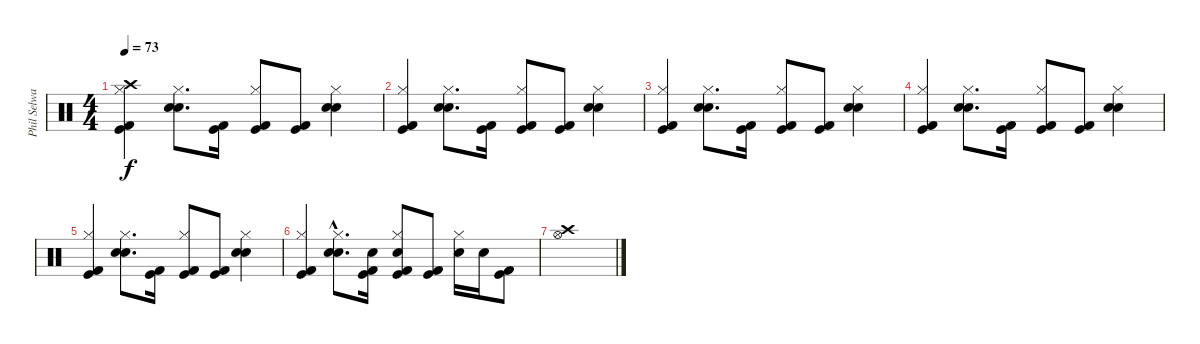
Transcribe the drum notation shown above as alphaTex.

\track ("Phil Selway - Drums" "Phil Selwa") {instrument percussion}
\staff {score}
\articulation defaults
\ts (4 4)
\tempo 73
\clef neutral
\ks c
("Kick (hit) 2" "Hi-Hat (closed)" "Kick (hit)" "Crash high (hit)").4{dy f} ("Electric Snare (hit)" "Hi-Hat (closed)" "Snare (hit) 2").8{d} ("Kick (hit)" "Kick (hit) 2").16 ("Kick (hit)" "Kick (hit) 2" "Hi-Hat (closed)").8 ("Kick (hit)" "Kick (hit) 2").8 ("Snare (hit) 2" "Electric Snare (hit)" "Hi-Hat (closed)").4 |
("Hi-Hat (closed)" "Kick (hit) 2" "Kick (hit)").4 ("Hi-Hat (closed)" "Snare (hit) 2" "Electric Snare (hit)").8{d} ("Kick (hit)" "Kick (hit) 2").16 ("Kick (hit)" "Kick (hit) 2" "Hi-Hat (closed)").8 ("Kick (hit)" "Kick (hit) 2").8 ("Snare (hit) 2" "Electric Snare (hit)" "Hi-Hat (closed)").4 |
("Hi-Hat (closed)" "Kick (hit) 2" "Kick (hit)").4 ("Hi-Hat (closed)" "Snare (hit) 2" "Electric Snare (hit)").8{d} ("Kick (hit)" "Kick (hit) 2").16 ("Kick (hit)" "Kick (hit) 2" "Hi-Hat (closed)").8 ("Kick (hit)" "Kick (hit) 2").8 ("Snare (hit) 2" "Electric Snare (hit)" "Hi-Hat (closed)").4 |
("Hi-Hat (closed)" "Kick (hit) 2" "Kick (hit)").4 ("Hi-Hat (closed)" "Snare (hit) 2" "Electric Snare (hit)").8{d} ("Kick (hit)" "Kick (hit) 2").16 ("Kick (hit)" "Kick (hit) 2" "Hi-Hat (closed)").8 ("Kick (hit)" "Kick (hit) 2").8 ("Snare (hit) 2" "Electric Snare (hit)" "Hi-Hat (closed)").4 |
("Hi-Hat (closed)" "Kick (hit) 2" "Kick (hit)").4 ("Hi-Hat (closed)" "Snare (hit) 2" "Electric Snare (hit)").8{d} ("Kick (hit)" "Kick (hit) 2").16 ("Kick (hit)" "Kick (hit) 2" "Hi-Hat (closed)").8 ("Kick (hit)" "Kick (hit) 2").8 ("Snare (hit) 2" "Electric Snare (hit)" "Hi-Hat (closed)").4 |
("Hi-Hat (closed)" "Kick (hit) 2" "Kick (hit)").4 ("Hi-Hat (closed)" "Snare (hit) 2"{hac} "Electric Snare (hit)").8{d} ("Kick (hit)" "Kick (hit) 2" "Snare (hit) 2").16 ("Snare (hit) 2" "Kick (hit)" "Kick (hit) 2" "Hi-Hat (closed)").8 ("Kick (hit) 2" "Kick (hit)").8 ("Hi-Hat (closed)" "Snare (hit) 2").16 "Snare (hit) 2".16 ("Kick (hit) 2" "Kick (hit)").8 |
("Hi-Hat (open)" "Crash high (hit)").1
